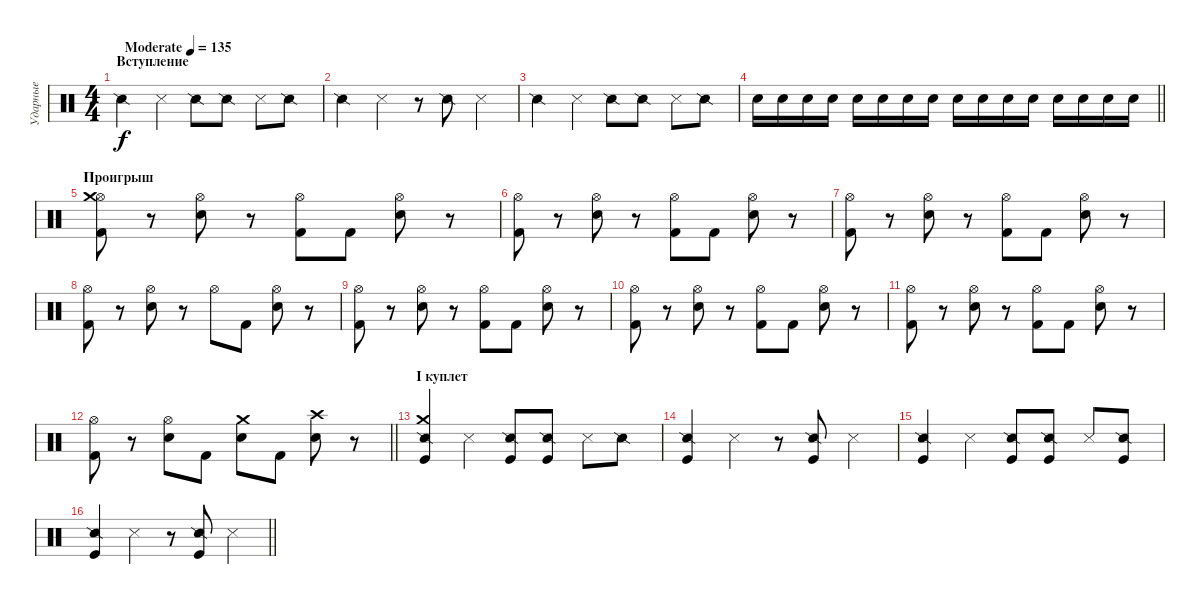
\track ("Ударные" "Ударные") {instrument percussion}
\staff {score}
\articulation defaults
\ts (4 4)
\section ("" "Вступление")
\tempo (135 "Moderate")
\clef neutral
\ks c "Snare (side stick) 2".4{dy f} "Snare (side stick) 3".4 "Snare (side stick) 2".8 "Snare (side stick) 2".8 "Snare (side stick) 3".8 "Snare (side stick) 2".8
|
"Snare (side stick) 2".4 "Snare (side stick) 3".4 r.8 "Snare (side stick) 2".8 "Snare (side stick) 3".4 |
"Snare (side stick) 2".4 "Snare (side stick) 3".4 "Snare (side stick) 2".8 "Snare (side stick) 2".8 "Snare (side stick) 3".8 "Snare (side stick) 2".8 |
\barLineRight lightlight "Electric Snare (hit)".16 "Electric Snare (hit)".16 "Electric Snare (hit)".16 "Electric Snare (hit)".16 "Electric Snare (hit)".16 "Electric Snare (hit)".16 "Electric Snare (hit)".16 "Electric Snare (hit)".16 "Electric Snare (hit)".16 "Electric Snare (hit)".16 "Electric Snare (hit)".16 "Electric Snare (hit)".16 "Electric Snare (hit)".16 "Electric Snare (hit)".16 "Electric Snare (hit)".16 "Electric Snare (hit)".16
|
\section ("" "Проигрыш")
("Hi-Hat (open)" "Crash medium (hit)" "Kick (hit) 2").8 r.8 ("Hi-Hat (open)" "Electric Snare (hit)").8 r.8 ("Hi-Hat (open)" "Kick (hit) 2").8 "Kick (hit) 2".8 ("Hi-Hat (open)" "Electric Snare (hit)").8 r.8 |
("Hi-Hat (open)" "Kick (hit) 2").8 r.8 ("Hi-Hat (open)" "Electric Snare (hit)").8 r.8 ("Hi-Hat (open)" "Kick (hit) 2").8 "Kick (hit) 2".8 ("Hi-Hat (open)" "Electric Snare (hit)").8 r.8 |
("Hi-Hat (open)" "Kick (hit) 2").8 r.8 ("Hi-Hat (open)" "Electric Snare (hit)").8 r.8 ("Hi-Hat (open)" "Kick (hit) 2").8 "Kick (hit) 2".8 ("Hi-Hat (open)" "Electric Snare (hit)").8 r.8 |
("Hi-Hat (open)" "Kick (hit) 2").8 r.8 ("Hi-Hat (open)" "Electric Snare (hit)").8 r.8 "Hi-Hat (open)".8 "Kick (hit) 2".8 ("Hi-Hat (open)" "Electric Snare (hit)").8 r.8 |
("Hi-Hat (open)" "Kick (hit) 2").8 r.8 ("Hi-Hat (open)" "Electric Snare (hit)").8 r.8 ("Hi-Hat (open)" "Kick (hit) 2").8 "Kick (hit) 2".8 ("Hi-Hat (open)" "Electric Snare (hit)").8 r.8 |
("Hi-Hat (open)" "Kick (hit) 2").8 r.8 ("Hi-Hat (open)" "Electric Snare (hit)").8 r.8 ("Hi-Hat (open)" "Kick (hit) 2").8 "Kick (hit) 2".8 ("Hi-Hat (open)" "Electric Snare (hit)").8 r.8 |
("Hi-Hat (open)" "Kick (hit) 2").8 r.8 ("Hi-Hat (open)" "Electric Snare (hit)").8 r.8 ("Hi-Hat (open)" "Kick (hit) 2").8 "Kick (hit) 2".8 ("Hi-Hat (open)" "Electric Snare (hit)").8 r.8 |
\barLineRight lightlight
("Hi-Hat (open)" "Kick (hit) 2").8 r.8 ("Hi-Hat (open)" "Electric Snare (hit)").8 "Kick (hit) 2".8 ("Crash medium (hit)" "Electric Snare (hit)").8 "Kick (hit) 2".8 ("Crash high (hit)" "Electric Snare (hit)").8 r.8 |
\section ("" "I куплет")
("Crash medium (hit)" "Snare (side stick) 2" "Kick (hit)").4 "Snare (side stick) 3".4 ("Snare (side stick) 2" "Kick (hit)").8 ("Snare (side stick) 2" "Kick (hit)").8 "Snare (side stick) 3".8 "Snare (side stick) 2".8 |
("Snare (side stick) 2" "Kick (hit)").4 "Snare (side stick) 3".4 r.8 ("Snare (side stick) 2" "Kick (hit)").8 "Snare (side stick) 3".4 |
("Snare (side stick) 2" "Kick (hit)").4 "Snare (side stick) 3".4 ("Snare (side stick) 2" "Kick (hit)").8 ("Snare (side stick) 2" "Kick (hit)").8 "Snare (side stick) 3".8 ("Snare (side stick) 2" "Kick (hit)").8 |
\barLineRight lightlight
("Snare (side stick) 2" "Kick (hit)").4 "Snare (side stick) 3".4 r.8 ("Snare (side stick) 2" "Kick (hit)").8 "Snare (side stick) 3".4
